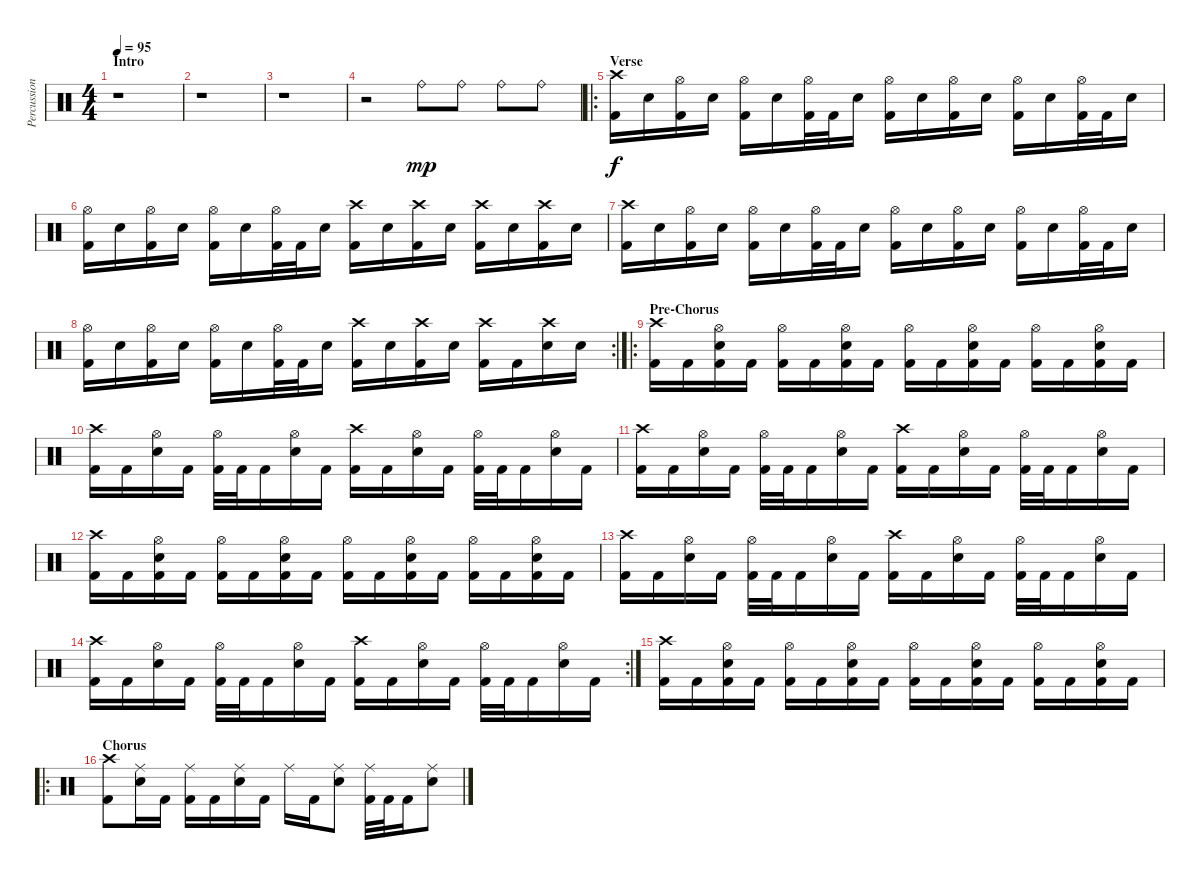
\track ("Percussion" "Percussion") {instrument percussion}
\staff {score}
\articulation defaults
\ts (4 4)
\section ("" "Intro")
\tempo 95
\clef neutral
\ks c
r.1{dy mp} |
r.1 |
r.1 |
r.2 "Ride (bell)".8 "Ride (bell)".8 "Ride (bell)".8 "Ride (bell)".8 |
\ro
\section ("" "Verse")
("Kick (hit) 2" "Crash high (hit)").16{dy f} "Snare (hit) 2".16 ("Kick (hit) 2" "Hi-Hat (open)").16 "Snare (hit) 2".16 ("Kick (hit) 2" "Hi-Hat (open)").16 "Snare (hit) 2".16 ("Kick (hit) 2" "Hi-Hat (open)").32 "Kick (hit) 2".32 "Snare (hit) 2".16 ("Kick (hit) 2" "Hi-Hat (open)").16 "Snare (hit) 2".16 ("Kick (hit) 2" "Hi-Hat (open)").16 "Snare (hit) 2".16 ("Kick (hit) 2" "Hi-Hat (open)").16 "Snare (hit) 2".16 ("Kick (hit) 2" "Hi-Hat (open)").32 "Kick (hit) 2".32 "Snare (hit) 2".16 |
("Kick (hit) 2" "Hi-Hat (open)").16 "Snare (hit) 2".16 ("Kick (hit) 2" "Hi-Hat (open)").16 "Snare (hit) 2".16 ("Kick (hit) 2" "Hi-Hat (open)").16 "Snare (hit) 2".16 ("Kick (hit) 2" "Hi-Hat (open)").32 "Kick (hit) 2".32 "Snare (hit) 2".16 ("Kick (hit) 2" "Crash high (hit)").16 "Snare (hit) 2".16 ("Kick (hit) 2" "Crash high (hit)").16 "Snare (hit) 2".16 ("Kick (hit) 2" "Crash high (hit)").16 "Snare (hit) 2".16 ("Kick (hit) 2" "Crash high (hit)").16 "Snare (hit) 2".16 |
("Kick (hit) 2" "Crash high (hit)").16 "Snare (hit) 2".16 ("Kick (hit) 2" "Hi-Hat (open)").16 "Snare (hit) 2".16 ("Kick (hit) 2" "Hi-Hat (open)").16 "Snare (hit) 2".16 ("Kick (hit) 2" "Hi-Hat (open)").32 "Kick (hit) 2".32 "Snare (hit) 2".16 ("Kick (hit) 2" "Hi-Hat (open)").16 "Snare (hit) 2".16 ("Kick (hit) 2" "Hi-Hat (open)").16 "Snare (hit) 2".16 ("Kick (hit) 2" "Hi-Hat (open)").16 "Snare (hit) 2".16 ("Kick (hit) 2" "Hi-Hat (open)").32 "Kick (hit) 2".32 "Snare (hit) 2".16 |
\rc 2
("Kick (hit) 2" "Hi-Hat (open)").16 "Snare (hit) 2".16 ("Kick (hit) 2" "Hi-Hat (open)").16 "Snare (hit) 2".16 ("Kick (hit) 2" "Hi-Hat (open)").16 "Snare (hit) 2".16 ("Kick (hit) 2" "Hi-Hat (open)").32 "Kick (hit) 2".32 "Snare (hit) 2".16 ("Kick (hit) 2" "Crash high (hit)").16 "Snare (hit) 2".16 ("Kick (hit) 2" "Crash high (hit)").16 "Snare (hit) 2".16 ("Kick (hit) 2" "Crash high (hit)").16 "Kick (hit) 2".16 ("Crash high (hit)" "Snare (hit) 2").16 "Snare (hit) 2".16 |
\ro
\section ("" "Pre-Chorus")
("Kick (hit) 2" "Crash high (hit)").16 "Kick (hit) 2".16 ("Kick (hit) 2" "Snare (hit) 2" "Hi-Hat (open)").16 "Kick (hit) 2".16 ("Kick (hit) 2" "Hi-Hat (open)").16 "Kick (hit) 2".16 ("Kick (hit) 2" "Snare (hit) 2" "Hi-Hat (open)").16 "Kick (hit) 2".16 ("Kick (hit) 2" "Hi-Hat (open)").16 "Kick (hit) 2".16 ("Kick (hit) 2" "Snare (hit) 2" "Hi-Hat (open)").16 "Kick (hit) 2".16 ("Kick (hit) 2" "Hi-Hat (open)").16 "Kick (hit) 2".16 ("Kick (hit) 2" "Snare (hit) 2" "Hi-Hat (open)").16 "Kick (hit) 2".16 |
("Kick (hit) 2" "Crash high (hit)").16 "Kick (hit) 2".16 ("Snare (hit) 2" "Hi-Hat (open)").16 "Kick (hit) 2".16 ("Kick (hit) 2" "Hi-Hat (open)").32 "Kick (hit) 2".32 "Kick (hit) 2".16 ("Snare (hit) 2" "Hi-Hat (open)").16 "Kick (hit) 2".16 ("Kick (hit) 2" "Crash high (hit)").16 "Kick (hit) 2".16 ("Snare (hit) 2" "Hi-Hat (open)").16 "Kick (hit) 2".16 ("Kick (hit) 2" "Hi-Hat (open)").32 "Kick (hit) 2".32 "Kick (hit) 2".16 ("Snare (hit) 2" "Hi-Hat (open)").16 "Kick (hit) 2".16 |
("Kick (hit) 2" "Crash high (hit)").16 "Kick (hit) 2".16 ("Snare (hit) 2" "Hi-Hat (open)").16 "Kick (hit) 2".16 ("Kick (hit) 2" "Hi-Hat (open)").32 "Kick (hit) 2".32 "Kick (hit) 2".16 ("Snare (hit) 2" "Hi-Hat (open)").16 "Kick (hit) 2".16 ("Kick (hit) 2" "Crash high (hit)").16 "Kick (hit) 2".16 ("Snare (hit) 2" "Hi-Hat (open)").16 "Kick (hit) 2".16 ("Kick (hit) 2" "Hi-Hat (open)").32 "Kick (hit) 2".32 "Kick (hit) 2".16 ("Snare (hit) 2" "Hi-Hat (open)").16 "Kick (hit) 2".16 |
("Kick (hit) 2" "Crash high (hit)").16 "Kick (hit) 2".16 ("Kick (hit) 2" "Snare (hit) 2" "Hi-Hat (open)").16 "Kick (hit) 2".16 ("Kick (hit) 2" "Hi-Hat (open)").16 "Kick (hit) 2".16 ("Kick (hit) 2" "Snare (hit) 2" "Hi-Hat (open)").16 "Kick (hit) 2".16 ("Kick (hit) 2" "Hi-Hat (open)").16 "Kick (hit) 2".16 ("Kick (hit) 2" "Snare (hit) 2" "Hi-Hat (open)").16 "Kick (hit) 2".16 ("Kick (hit) 2" "Hi-Hat (open)").16 "Kick (hit) 2".16 ("Kick (hit) 2" "Snare (hit) 2" "Hi-Hat (open)").16 "Kick (hit) 2".16 |
("Kick (hit) 2" "Crash high (hit)").16 "Kick (hit) 2".16 ("Snare (hit) 2" "Hi-Hat (open)").16 "Kick (hit) 2".16 ("Kick (hit) 2" "Hi-Hat (open)").32 "Kick (hit) 2".32 "Kick (hit) 2".16 ("Snare (hit) 2" "Hi-Hat (open)").16 "Kick (hit) 2".16 ("Kick (hit) 2" "Crash high (hit)").16 "Kick (hit) 2".16 ("Snare (hit) 2" "Hi-Hat (open)").16 "Kick (hit) 2".16 ("Kick (hit) 2" "Hi-Hat (open)").32 "Kick (hit) 2".32 "Kick (hit) 2".16 ("Snare (hit) 2" "Hi-Hat (open)").16 "Kick (hit) 2".16 |
\rc 2
("Kick (hit) 2" "Crash high (hit)").16 "Kick (hit) 2".16 ("Snare (hit) 2" "Hi-Hat (open)").16 "Kick (hit) 2".16 ("Kick (hit) 2" "Hi-Hat (open)").32 "Kick (hit) 2".32 "Kick (hit) 2".16 ("Snare (hit) 2" "Hi-Hat (open)").16 "Kick (hit) 2".16 ("Kick (hit) 2" "Crash high (hit)").16 "Kick (hit) 2".16 ("Snare (hit) 2" "Hi-Hat (open)").16 "Kick (hit) 2".16 ("Kick (hit) 2" "Hi-Hat (open)").32 "Kick (hit) 2".32 "Kick (hit) 2".16 ("Snare (hit) 2" "Hi-Hat (open)").16 "Kick (hit) 2".16 |
("Kick (hit) 2" "Crash high (hit)").16 "Kick (hit) 2".16 ("Kick (hit) 2" "Snare (hit) 2" "Hi-Hat (open)").16 "Kick (hit) 2".16 ("Kick (hit) 2" "Hi-Hat (open)").16 "Kick (hit) 2".16 ("Kick (hit) 2" "Snare (hit) 2" "Hi-Hat (open)").16 "Kick (hit) 2".16 ("Kick (hit) 2" "Hi-Hat (open)").16 "Kick (hit) 2".16 ("Kick (hit) 2" "Snare (hit) 2" "Hi-Hat (open)").16 "Kick (hit) 2".16 ("Kick (hit) 2" "Hi-Hat (open)").16 "Kick (hit) 2".16 ("Kick (hit) 2" "Snare (hit) 2" "Hi-Hat (open)").16 "Kick (hit) 2".16 |
\ro
\section ("" "Chorus")
("Kick (hit) 2" "Crash high (hit)").8 ("Ride (middle)" "Snare (hit) 2").16 "Kick (hit) 2".16 ("Kick (hit) 2" "Ride (middle)").16 "Kick (hit) 2".16 ("Ride (middle)" "Snare (hit) 2").16 "Kick (hit) 2".16 "Ride (middle)".16 "Kick (hit) 2".16 ("Ride (middle)" "Snare (hit) 2").8 ("Kick (hit) 2" "Ride (middle)").32 "Kick (hit) 2".32 "Kick (hit) 2".16 ("Ride (middle)" "Snare (hit) 2").8
